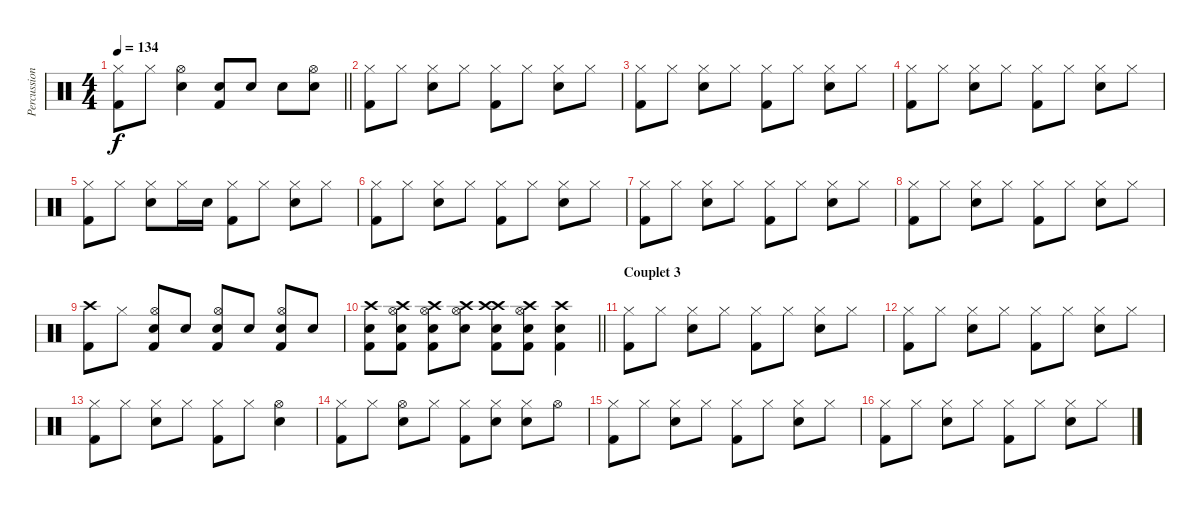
\track ("Percussion" "Percussion") {instrument percussion}
\staff {score}
\articulation defaults
\ts (4 4)
\tempo 134
\clef neutral
\barLineRight lightlight
\ks c
("Hi-Hat (closed)" "Kick (hit) 2").8{dy f} "Hi-Hat (closed)".8 ("Hi-Hat (open)" "Snare (hit) 2").4 ("Snare (hit) 2" "Kick (hit) 2").8 "Snare (hit) 2".8 "Snare (hit) 2".8 ("Hi-Hat (open)" "Snare (hit) 2").8 |
("Hi-Hat (closed)" "Kick (hit) 2").8 "Hi-Hat (closed)".8 ("Hi-Hat (closed)" "Snare (hit) 2").8 "Hi-Hat (closed)".8 ("Hi-Hat (closed)" "Kick (hit) 2").8 "Hi-Hat (closed)".8 ("Hi-Hat (closed)" "Snare (hit) 2").8 "Hi-Hat (closed)".8 |
("Hi-Hat (closed)" "Kick (hit) 2").8 "Hi-Hat (closed)".8 ("Hi-Hat (closed)" "Snare (hit) 2").8 "Hi-Hat (closed)".8 ("Hi-Hat (closed)" "Kick (hit) 2").8 "Hi-Hat (closed)".8 ("Hi-Hat (closed)" "Snare (hit) 2").8 "Hi-Hat (closed)".8 |
("Hi-Hat (closed)" "Kick (hit) 2").8 "Hi-Hat (closed)".8 ("Hi-Hat (closed)" "Snare (hit) 2").8 "Hi-Hat (closed)".8 ("Hi-Hat (closed)" "Kick (hit) 2").8 "Hi-Hat (closed)".8 ("Hi-Hat (closed)" "Snare (hit) 2").8 "Hi-Hat (closed)".8 |
("Hi-Hat (closed)" "Kick (hit) 2").8 "Hi-Hat (closed)".8 ("Hi-Hat (closed)" "Snare (hit) 2").8 "Hi-Hat (closed)".16 "Snare (hit) 2".16 ("Hi-Hat (closed)" "Kick (hit) 2").8 "Hi-Hat (closed)".8 ("Hi-Hat (closed)" "Snare (hit) 2").8 "Hi-Hat (closed)".8 |
("Hi-Hat (closed)" "Kick (hit) 2").8 "Hi-Hat (closed)".8 ("Hi-Hat (closed)" "Snare (hit) 2").8 "Hi-Hat (closed)".8 ("Hi-Hat (closed)" "Kick (hit) 2").8 "Hi-Hat (closed)".8 ("Hi-Hat (closed)" "Snare (hit) 2").8 "Hi-Hat (closed)".8 |
("Hi-Hat (closed)" "Kick (hit) 2").8 "Hi-Hat (closed)".8 ("Hi-Hat (closed)" "Snare (hit) 2").8 "Hi-Hat (closed)".8 ("Hi-Hat (closed)" "Kick (hit) 2").8 "Hi-Hat (closed)".8 ("Hi-Hat (closed)" "Snare (hit) 2").8 "Hi-Hat (closed)".8 |
("Hi-Hat (closed)" "Kick (hit) 2").8 "Hi-Hat (closed)".8 ("Hi-Hat (closed)" "Snare (hit) 2").8 "Hi-Hat (closed)".8 ("Hi-Hat (closed)" "Kick (hit) 2").8 "Hi-Hat (closed)".8 ("Hi-Hat (closed)" "Snare (hit) 2").8 "Hi-Hat (closed)".8 |
("Crash high (hit)" "Kick (hit) 2").8 "Hi-Hat (closed)".8 ("Hi-Hat (open)" "Snare (hit) 2" "Kick (hit) 2").8 "Snare (hit) 2".8 ("Hi-Hat (open)" "Snare (hit) 2" "Kick (hit) 2").8 "Snare (hit) 2".8 ("Hi-Hat (open)" "Snare (hit) 2" "Kick (hit) 2").8 "Snare (hit) 2".8 |
\barLineRight lightlight
("Crash high (hit)" "Snare (hit) 2" "Kick (hit) 2").8 ("Hi-Hat (open)" "Crash high (hit)" "Snare (hit) 2" "Kick (hit) 2").8 ("Hi-Hat (open)" "Crash high (hit)" "Snare (hit) 2" "Kick (hit) 2").8 ("Hi-Hat (open)" "Crash high (hit)" "Snare (hit) 2").8 ("Crash high (hit)" "Crash high (hit)" "Snare (hit) 2" "Kick (hit) 2").8 ("Hi-Hat (open)" "Crash high (hit)" "Snare (hit) 2" "Kick (hit) 2").8 ("Crash high (hit)" "Snare (hit) 2" "Kick (hit) 2").4 |
\section ("" "Couplet 3")
("Hi-Hat (closed)" "Kick (hit) 2").8 "Hi-Hat (closed)".8 ("Hi-Hat (closed)" "Snare (hit) 2").8 "Hi-Hat (closed)".8 ("Hi-Hat (closed)" "Kick (hit) 2").8 "Hi-Hat (closed)".8 ("Hi-Hat (closed)" "Snare (hit) 2").8 "Hi-Hat (closed)".8 |
("Hi-Hat (closed)" "Kick (hit) 2").8 "Hi-Hat (closed)".8 ("Hi-Hat (closed)" "Snare (hit) 2").8 "Hi-Hat (closed)".8 ("Hi-Hat (closed)" "Kick (hit) 2").8 "Hi-Hat (closed)".8 ("Hi-Hat (closed)" "Snare (hit) 2").8 "Hi-Hat (closed)".8 |
("Hi-Hat (closed)" "Kick (hit) 2").8 "Hi-Hat (closed)".8 ("Hi-Hat (closed)" "Snare (hit) 2").8 "Hi-Hat (closed)".8 ("Hi-Hat (closed)" "Kick (hit) 2").8 "Hi-Hat (closed)".8 ("Hi-Hat (open)" "Snare (hit) 2").4 |
("Hi-Hat (closed)" "Kick (hit) 2").8 "Hi-Hat (closed)".8 ("Hi-Hat (open)" "Snare (hit) 2").8 "Hi-Hat (closed)".8 ("Hi-Hat (closed)" "Kick (hit) 2").8 ("Hi-Hat (closed)" "Snare (hit) 2").8 ("Hi-Hat (closed)" "Snare (hit) 2").8 "Hi-Hat (open)".8 |
("Hi-Hat (closed)" "Kick (hit) 2").8 "Hi-Hat (closed)".8 ("Hi-Hat (closed)" "Snare (hit) 2").8 "Hi-Hat (closed)".8 ("Hi-Hat (closed)" "Kick (hit) 2").8 "Hi-Hat (closed)".8 ("Hi-Hat (closed)" "Snare (hit) 2").8 "Hi-Hat (closed)".8 |
("Hi-Hat (closed)" "Kick (hit) 2").8 "Hi-Hat (closed)".8 ("Hi-Hat (closed)" "Snare (hit) 2").8 "Hi-Hat (closed)".8 ("Hi-Hat (closed)" "Kick (hit) 2").8 "Hi-Hat (closed)".8 ("Hi-Hat (closed)" "Snare (hit) 2").8 "Hi-Hat (closed)".8
